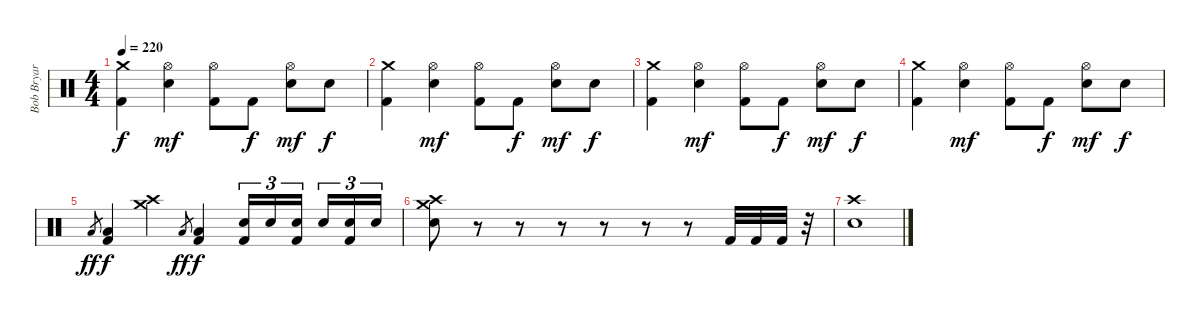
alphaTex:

\track ("Bob Bryar" "Bob Bryar") {instrument percussion}
\staff {score}
\articulation defaults
\ts (4 4)
\tempo 220
\clef neutral
\ks c
("Crash medium (hit)" "Kick (hit) 2").4{dy f} ("Hi-Hat (open)" "Electric Snare (hit)").4{dy mf} ("Hi-Hat (open)" "Kick (hit) 2").8 "Kick (hit) 2".8{dy f} ("Hi-Hat (open)" "Electric Snare (hit)").8{dy mf} "Electric Snare (hit)".8{dy f} |
("Crash medium (hit)" "Kick (hit) 2").4 ("Hi-Hat (open)" "Electric Snare (hit)").4{dy mf} ("Hi-Hat (open)" "Kick (hit) 2").8 "Kick (hit) 2".8{dy f} ("Hi-Hat (open)" "Electric Snare (hit)").8{dy mf} "Electric Snare (hit)".8{dy f} |
("Crash medium (hit)" "Kick (hit) 2").4 ("Hi-Hat (open)" "Electric Snare (hit)").4{dy mf} ("Hi-Hat (open)" "Kick (hit) 2").8 "Kick (hit) 2".8{dy f} ("Hi-Hat (open)" "Electric Snare (hit)").8{dy mf} "Electric Snare (hit)".8{dy f} |
("Crash medium (hit)" "Kick (hit) 2").4 ("Hi-Hat (open)" "Electric Snare (hit)").4{dy mf} ("Hi-Hat (open)" "Kick (hit) 2").8 "Kick (hit) 2".8{dy f} ("Hi-Hat (open)" "Electric Snare (hit)").8{dy mf} "Electric Snare (hit)".8{dy f} |
"Low Floor Tom (hit)".8{gr dy ff} ("Low Floor Tom (hit)" "Kick (hit) 2").4{dy f} ("Crash medium (hit)" "Crash high (hit)").4 "Low Floor Tom (hit)".8{gr dy ff} ("Low Floor Tom (hit)" "Kick (hit) 2").4{dy f} ("Snare (hit) 2" "Kick (hit) 2").16{tu (3 2)} "Snare (hit) 2".16{tu (3 2)} ("Snare (hit) 2" "Kick (hit) 2").16{tu (3 2) beam splitsecondary} "Snare (hit) 2".16{tu (3 2)} ("Snare (hit) 2" "Kick (hit) 2").16{tu (3 2)} "Snare (hit) 2".16{tu (3 2)} |
("Crash medium (hit)" "Crash high (hit)" "Electric Snare (hit)").8 r.8 r.8 r.8 r.8 r.8 r.8 "Kick (hit) 2".32 "Kick (hit) 2".32 "Kick (hit) 2".32 r.32 |
("Crash high (hit)" "Electric Snare (hit)").1
